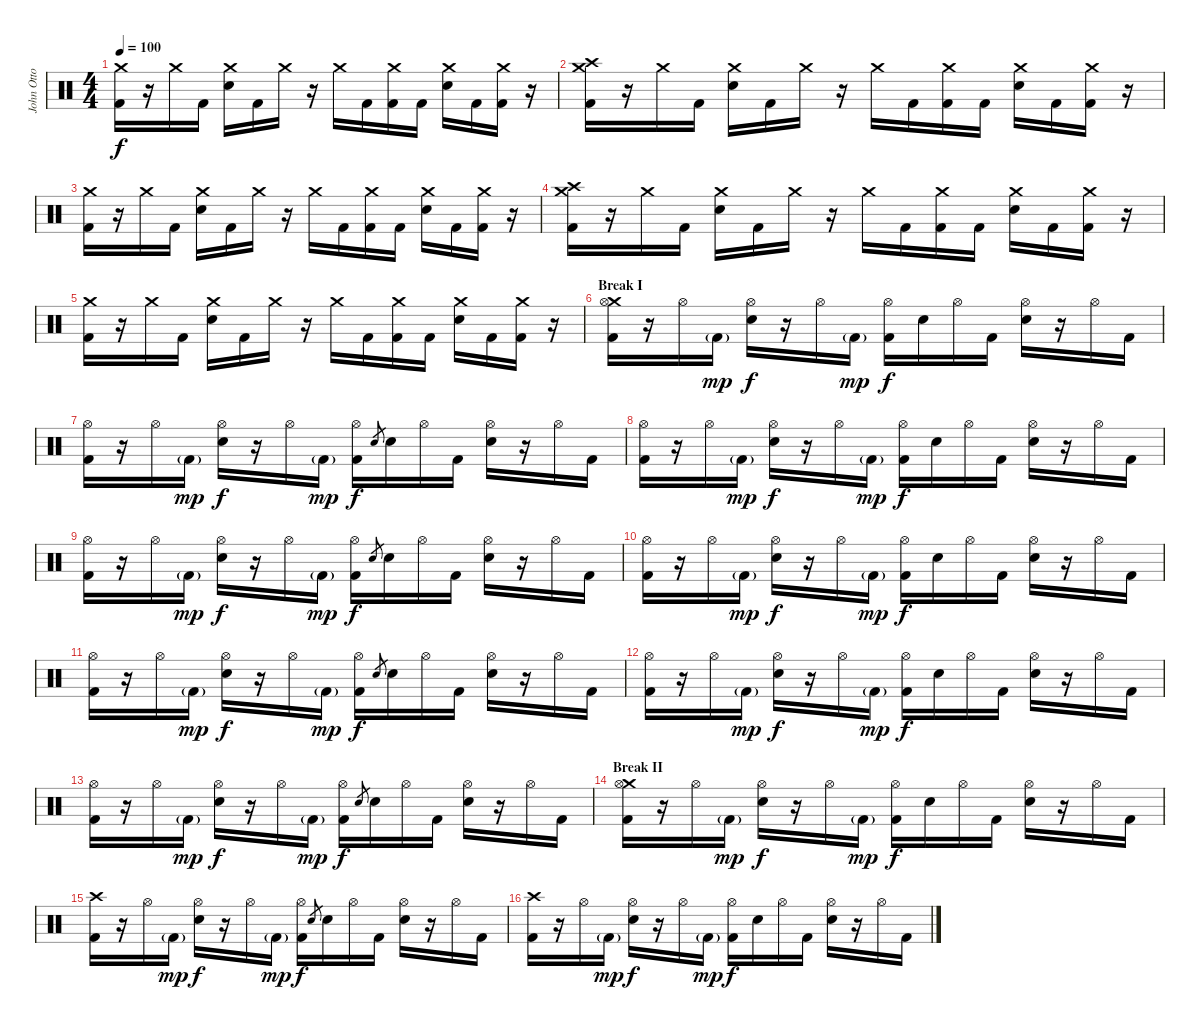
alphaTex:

\track ("John Otto - Drums" "John Otto ") {instrument percussion}
\staff {score}
\articulation defaults
\ts (4 4)
\tempo 100
\clef neutral
\ks c
("Crash medium (hit)" "Kick (hit) 2").16{dy f} r.16 "Crash medium (hit)".16 "Kick (hit) 2".16 ("Crash medium (hit)" "Snare (hit) 2").16 "Kick (hit) 2".16 "Crash medium (hit)".16 r.16 "Crash medium (hit)".16 "Kick (hit) 2".16 ("Crash medium (hit)" "Kick (hit) 2").16 "Kick (hit) 2".16 ("Crash medium (hit)" "Snare (hit) 2").16 "Kick (hit) 2".16 ("Crash medium (hit)" "Kick (hit) 2").16 r.16 |
("Crash medium (hit)" "Crash high (hit)" "Kick (hit) 2").16 r.16 "Crash medium (hit)".16 "Kick (hit) 2".16 ("Crash medium (hit)" "Snare (hit) 2").16 "Kick (hit) 2".16 "Crash medium (hit)".16 r.16 "Crash medium (hit)".16 "Kick (hit) 2".16 ("Crash medium (hit)" "Kick (hit) 2").16 "Kick (hit) 2".16 ("Crash medium (hit)" "Snare (hit) 2").16 "Kick (hit) 2".16 ("Crash medium (hit)" "Kick (hit) 2").16 r.16 |
("Crash medium (hit)" "Kick (hit) 2").16 r.16 "Crash medium (hit)".16 "Kick (hit) 2".16 ("Crash medium (hit)" "Snare (hit) 2").16 "Kick (hit) 2".16 "Crash medium (hit)".16 r.16 "Crash medium (hit)".16 "Kick (hit) 2".16 ("Crash medium (hit)" "Kick (hit) 2").16 "Kick (hit) 2".16 ("Crash medium (hit)" "Snare (hit) 2").16 "Kick (hit) 2".16 ("Crash medium (hit)" "Kick (hit) 2").16 r.16 |
("Crash medium (hit)" "Crash high (hit)" "Kick (hit) 2").16 r.16 "Crash medium (hit)".16 "Kick (hit) 2".16 ("Crash medium (hit)" "Snare (hit) 2").16 "Kick (hit) 2".16 "Crash medium (hit)".16 r.16 "Crash medium (hit)".16 "Kick (hit) 2".16 ("Crash medium (hit)" "Kick (hit) 2").16 "Kick (hit) 2".16 ("Crash medium (hit)" "Snare (hit) 2").16 "Kick (hit) 2".16 ("Crash medium (hit)" "Kick (hit) 2").16 r.16 |
("Crash medium (hit)" "Kick (hit) 2").16 r.16 "Crash medium (hit)".16 "Kick (hit) 2".16 ("Crash medium (hit)" "Snare (hit) 2").16 "Kick (hit) 2".16 "Crash medium (hit)".16 r.16 "Crash medium (hit)".16 "Kick (hit) 2".16 ("Crash medium (hit)" "Kick (hit) 2").16 "Kick (hit) 2".16 ("Crash medium (hit)" "Snare (hit) 2").16 "Kick (hit) 2".16 ("Crash medium (hit)" "Kick (hit) 2").16 r.16 |
\section ("" "Break I")
("Crash medium (hit)" "Hi-Hat (open)" "Kick (hit) 2").16 r.16 "Hi-Hat (open)".16 "Kick (hit) 2"{g}.16{dy mp} ("Hi-Hat (open)" "Snare (hit) 2").16{dy f} r.16 "Hi-Hat (open)".16 "Kick (hit) 2"{g}.16{dy mp} ("Hi-Hat (open)" "Kick (hit) 2").16{dy f} "Snare (hit) 2".16 "Hi-Hat (open)".16 "Kick (hit) 2".16 ("Hi-Hat (open)" "Snare (hit) 2").16 r.16 "Hi-Hat (open)".16 "Kick (hit) 2".16 |
("Hi-Hat (open)" "Kick (hit) 2").16 r.16 "Hi-Hat (open)".16 "Kick (hit) 2"{g}.16{dy mp} ("Hi-Hat (open)" "Snare (hit) 2").16{dy f} r.16 "Hi-Hat (open)".16 "Kick (hit) 2"{g}.16{dy mp} ("Hi-Hat (open)" "Kick (hit) 2").16{dy f} "Snare (hit) 2".8{gr} "Snare (hit) 2".16 "Hi-Hat (open)".16 "Kick (hit) 2".16 ("Hi-Hat (open)" "Snare (hit) 2").16 r.16 "Hi-Hat (open)".16 "Kick (hit) 2".16 |
("Hi-Hat (open)" "Kick (hit) 2").16 r.16 "Hi-Hat (open)".16 "Kick (hit) 2"{g}.16{dy mp} ("Hi-Hat (open)" "Snare (hit) 2").16{dy f} r.16 "Hi-Hat (open)".16 "Kick (hit) 2"{g}.16{dy mp} ("Hi-Hat (open)" "Kick (hit) 2").16{dy f} "Snare (hit) 2".16 "Hi-Hat (open)".16 "Kick (hit) 2".16 ("Hi-Hat (open)" "Snare (hit) 2").16 r.16 "Hi-Hat (open)".16 "Kick (hit) 2".16 |
("Hi-Hat (open)" "Kick (hit) 2").16 r.16 "Hi-Hat (open)".16 "Kick (hit) 2"{g}.16{dy mp} ("Hi-Hat (open)" "Snare (hit) 2").16{dy f} r.16 "Hi-Hat (open)".16 "Kick (hit) 2"{g}.16{dy mp} ("Hi-Hat (open)" "Kick (hit) 2").16{dy f} "Snare (hit) 2".8{gr} "Snare (hit) 2".16 "Hi-Hat (open)".16 "Kick (hit) 2".16 ("Hi-Hat (open)" "Snare (hit) 2").16 r.16 "Hi-Hat (open)".16 "Kick (hit) 2".16 |
("Hi-Hat (open)" "Kick (hit) 2").16 r.16 "Hi-Hat (open)".16 "Kick (hit) 2"{g}.16{dy mp} ("Hi-Hat (open)" "Snare (hit) 2").16{dy f} r.16 "Hi-Hat (open)".16 "Kick (hit) 2"{g}.16{dy mp} ("Hi-Hat (open)" "Kick (hit) 2").16{dy f} "Snare (hit) 2".16 "Hi-Hat (open)".16 "Kick (hit) 2".16 ("Hi-Hat (open)" "Snare (hit) 2").16 r.16 "Hi-Hat (open)".16 "Kick (hit) 2".16 |
("Hi-Hat (open)" "Kick (hit) 2").16 r.16 "Hi-Hat (open)".16 "Kick (hit) 2"{g}.16{dy mp} ("Hi-Hat (open)" "Snare (hit) 2").16{dy f} r.16 "Hi-Hat (open)".16 "Kick (hit) 2"{g}.16{dy mp} ("Hi-Hat (open)" "Kick (hit) 2").16{dy f} "Snare (hit) 2".8{gr} "Snare (hit) 2".16 "Hi-Hat (open)".16 "Kick (hit) 2".16 ("Hi-Hat (open)" "Snare (hit) 2").16 r.16 "Hi-Hat (open)".16 "Kick (hit) 2".16 |
("Hi-Hat (open)" "Kick (hit) 2").16 r.16 "Hi-Hat (open)".16 "Kick (hit) 2"{g}.16{dy mp} ("Hi-Hat (open)" "Snare (hit) 2").16{dy f} r.16 "Hi-Hat (open)".16 "Kick (hit) 2"{g}.16{dy mp} ("Hi-Hat (open)" "Kick (hit) 2").16{dy f} "Snare (hit) 2".16 "Hi-Hat (open)".16 "Kick (hit) 2".16 ("Hi-Hat (open)" "Snare (hit) 2").16 r.16 "Hi-Hat (open)".16 "Kick (hit) 2".16 |
("Hi-Hat (open)" "Kick (hit) 2").16 r.16 "Hi-Hat (open)".16 "Kick (hit) 2"{g}.16{dy mp} ("Hi-Hat (open)" "Snare (hit) 2").16{dy f} r.16 "Hi-Hat (open)".16 "Kick (hit) 2"{g}.16{dy mp} ("Hi-Hat (open)" "Kick (hit) 2").16{dy f} "Snare (hit) 2".8{gr} "Snare (hit) 2".16 "Hi-Hat (open)".16 "Kick (hit) 2".16 ("Hi-Hat (open)" "Snare (hit) 2").16 r.16 "Hi-Hat (open)".16 "Kick (hit) 2".16 |
\section ("" "Break II")
("Crash medium (hit)" "Hi-Hat (open)" "Kick (hit) 2").16 r.16 "Hi-Hat (open)".16 "Kick (hit) 2"{g}.16{dy mp} ("Hi-Hat (open)" "Snare (hit) 2").16{dy f} r.16 "Hi-Hat (open)".16 "Kick (hit) 2"{g}.16{dy mp} ("Hi-Hat (open)" "Kick (hit) 2").16{dy f} "Snare (hit) 2".16 "Hi-Hat (open)".16 "Kick (hit) 2".16 ("Hi-Hat (open)" "Snare (hit) 2").16 r.16 "Hi-Hat (open)".16 "Kick (hit) 2".16 |
("Crash high (hit)" "Kick (hit) 2").16 r.16 "Hi-Hat (open)".16 "Kick (hit) 2"{g}.16{dy mp} ("Hi-Hat (open)" "Snare (hit) 2").16{dy f} r.16 "Hi-Hat (open)".16 "Kick (hit) 2"{g}.16{dy mp} ("Hi-Hat (open)" "Kick (hit) 2").16{dy f} "Snare (hit) 2".8{gr} "Snare (hit) 2".16 "Hi-Hat (open)".16 "Kick (hit) 2".16 ("Hi-Hat (open)" "Snare (hit) 2").16 r.16 "Hi-Hat (open)".16 "Kick (hit) 2".16 |
("Crash high (hit)" "Kick (hit) 2").16 r.16 "Hi-Hat (open)".16 "Kick (hit) 2"{g}.16{dy mp} ("Hi-Hat (open)" "Snare (hit) 2").16{dy f} r.16 "Hi-Hat (open)".16 "Kick (hit) 2"{g}.16{dy mp} ("Hi-Hat (open)" "Kick (hit) 2").16{dy f} "Snare (hit) 2".16 "Hi-Hat (open)".16 "Kick (hit) 2".16 ("Hi-Hat (open)" "Snare (hit) 2").16 r.16 "Hi-Hat (open)".16 "Kick (hit) 2".16
